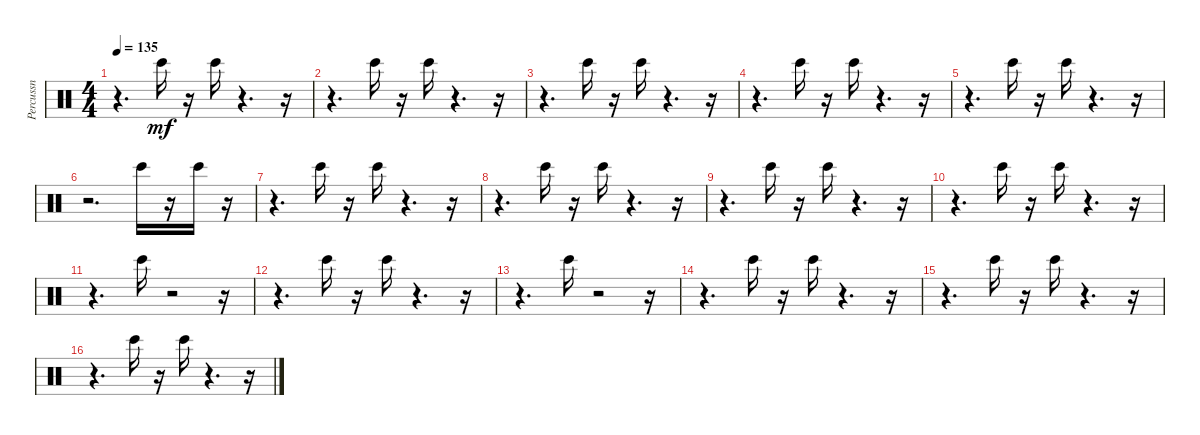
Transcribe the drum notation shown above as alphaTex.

\track ("Percussn" "Percussn") {instrument percussion}
\staff {score}
\articulation defaults
\ts (4 4)
\tempo 135
\clef neutral
\ks c
r.4{d dy mf} "Bongo High (hit)".16{balance 1} r.16 "Bongo High (hit)".16{balance 9} r.4{d} r.16 |
r.4{d} "Bongo High (hit)".16{balance 8} r.16 "Bongo High (hit)".16{balance 2} r.4{d} r.16 |
r.4{d} "Bongo High (hit)".16{balance 6} r.16 "Bongo High (hit)".16{balance 16} r.4{d} r.16 |
r.4{d} "Bongo High (hit)".16{balance 9} r.16 "Bongo High (hit)".16{balance 11} r.4{d} r.16 |
r.4{d} "Bongo High (hit)".16{balance 4} r.16 "Bongo High (hit)".16{balance 5} r.4{d} r.16 |
r.2{d} "Bongo High (hit)".16{balance 14} r.16 "Bongo High (hit)".16{balance 3} r.16 |
r.4{d} "Bongo High (hit)".16{balance 8} r.16 "Bongo High (hit)".16{balance 8} r.4{d} r.16 |
r.4{d} "Bongo High (hit)".16{balance 1} r.16 "Bongo High (hit)".16{balance 4} r.4{d} r.16 |
r.4{d} "Bongo High (hit)".16{balance 8} r.16 "Bongo High (hit)".16{balance 15} r.4{d} r.16 |
r.4{d} "Bongo High (hit)".16{balance 3} r.16 "Bongo High (hit)".16{balance 4} r.4{d} r.16 |
r.4{d} "Bongo High (hit)".16{balance 2} r.2 r.16 |
r.4{d} "Bongo High (hit)".16{balance 11} r.16 "Bongo High (hit)".16{balance 15} r.4{d} r.16 |
r.4{d} "Bongo High (hit)".16{balance 12} r.2 r.16 |
r.4{d} "Bongo High (hit)".16{balance 10} r.16 "Bongo High (hit)".16{balance 3} r.4{d} r.16 |
r.4{d} "Bongo High (hit)".16{balance 5} r.16 "Bongo High (hit)".16{balance 2} r.4{d} r.16 |
r.4{d} "Bongo High (hit)".16{balance 15} r.16 "Bongo High (hit)".16{balance 7} r.4{d} r.16
